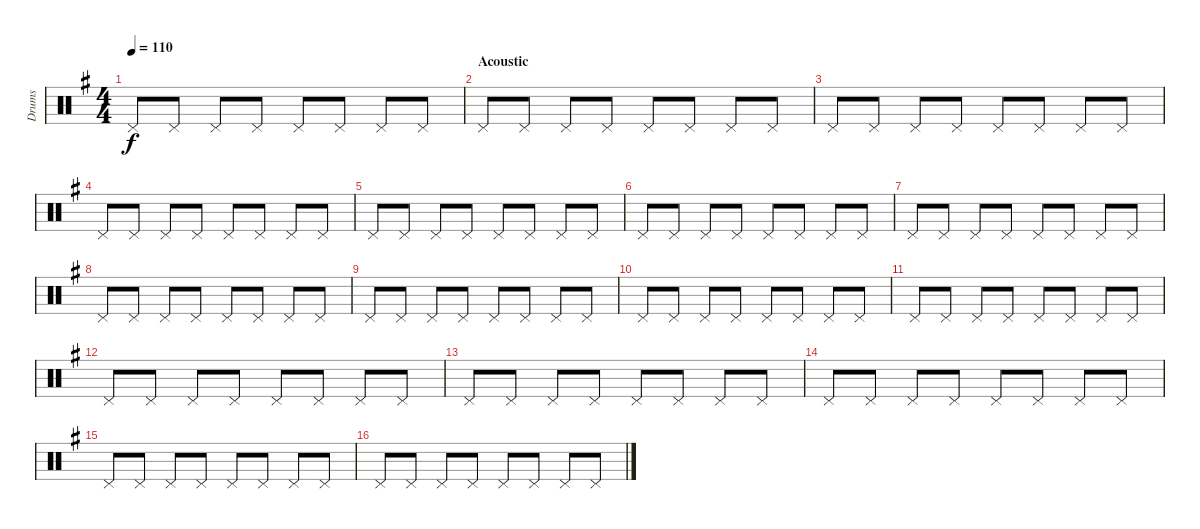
\track ("Drums" "Drums") {instrument percussion}
\staff {score}
\articulation defaults
\ts (4 4)
\tempo 110
\clef neutral
\ks g "Pedal Hi-Hat (hit)".8{dy f} "Pedal Hi-Hat (hit)".8 "Pedal Hi-Hat (hit)".8 "Pedal Hi-Hat (hit)".8 "Pedal Hi-Hat (hit)".8 "Pedal Hi-Hat (hit)".8 "Pedal Hi-Hat (hit)".8 "Pedal Hi-Hat (hit)".8
|
\section ("" "Acoustic")
"Pedal Hi-Hat (hit)".8 "Pedal Hi-Hat (hit)".8 "Pedal Hi-Hat (hit)".8 "Pedal Hi-Hat (hit)".8 "Pedal Hi-Hat (hit)".8 "Pedal Hi-Hat (hit)".8 "Pedal Hi-Hat (hit)".8 "Pedal Hi-Hat (hit)".8 |
"Pedal Hi-Hat (hit)".8 "Pedal Hi-Hat (hit)".8 "Pedal Hi-Hat (hit)".8 "Pedal Hi-Hat (hit)".8 "Pedal Hi-Hat (hit)".8 "Pedal Hi-Hat (hit)".8 "Pedal Hi-Hat (hit)".8 "Pedal Hi-Hat (hit)".8 |
"Pedal Hi-Hat (hit)".8 "Pedal Hi-Hat (hit)".8 "Pedal Hi-Hat (hit)".8 "Pedal Hi-Hat (hit)".8 "Pedal Hi-Hat (hit)".8 "Pedal Hi-Hat (hit)".8 "Pedal Hi-Hat (hit)".8 "Pedal Hi-Hat (hit)".8 |
"Pedal Hi-Hat (hit)".8 "Pedal Hi-Hat (hit)".8 "Pedal Hi-Hat (hit)".8 "Pedal Hi-Hat (hit)".8 "Pedal Hi-Hat (hit)".8 "Pedal Hi-Hat (hit)".8 "Pedal Hi-Hat (hit)".8 "Pedal Hi-Hat (hit)".8 |
"Pedal Hi-Hat (hit)".8 "Pedal Hi-Hat (hit)".8 "Pedal Hi-Hat (hit)".8 "Pedal Hi-Hat (hit)".8 "Pedal Hi-Hat (hit)".8 "Pedal Hi-Hat (hit)".8 "Pedal Hi-Hat (hit)".8 "Pedal Hi-Hat (hit)".8 |
"Pedal Hi-Hat (hit)".8 "Pedal Hi-Hat (hit)".8 "Pedal Hi-Hat (hit)".8 "Pedal Hi-Hat (hit)".8 "Pedal Hi-Hat (hit)".8 "Pedal Hi-Hat (hit)".8 "Pedal Hi-Hat (hit)".8 "Pedal Hi-Hat (hit)".8 |
"Pedal Hi-Hat (hit)".8 "Pedal Hi-Hat (hit)".8 "Pedal Hi-Hat (hit)".8 "Pedal Hi-Hat (hit)".8 "Pedal Hi-Hat (hit)".8 "Pedal Hi-Hat (hit)".8 "Pedal Hi-Hat (hit)".8 "Pedal Hi-Hat (hit)".8 |
"Pedal Hi-Hat (hit)".8 "Pedal Hi-Hat (hit)".8 "Pedal Hi-Hat (hit)".8 "Pedal Hi-Hat (hit)".8 "Pedal Hi-Hat (hit)".8 "Pedal Hi-Hat (hit)".8 "Pedal Hi-Hat (hit)".8 "Pedal Hi-Hat (hit)".8 |
"Pedal Hi-Hat (hit)".8 "Pedal Hi-Hat (hit)".8 "Pedal Hi-Hat (hit)".8 "Pedal Hi-Hat (hit)".8 "Pedal Hi-Hat (hit)".8 "Pedal Hi-Hat (hit)".8 "Pedal Hi-Hat (hit)".8 "Pedal Hi-Hat (hit)".8 |
"Pedal Hi-Hat (hit)".8 "Pedal Hi-Hat (hit)".8 "Pedal Hi-Hat (hit)".8 "Pedal Hi-Hat (hit)".8 "Pedal Hi-Hat (hit)".8 "Pedal Hi-Hat (hit)".8 "Pedal Hi-Hat (hit)".8 "Pedal Hi-Hat (hit)".8 |
"Pedal Hi-Hat (hit)".8 "Pedal Hi-Hat (hit)".8 "Pedal Hi-Hat (hit)".8 "Pedal Hi-Hat (hit)".8 "Pedal Hi-Hat (hit)".8 "Pedal Hi-Hat (hit)".8 "Pedal Hi-Hat (hit)".8 "Pedal Hi-Hat (hit)".8 |
"Pedal Hi-Hat (hit)".8 "Pedal Hi-Hat (hit)".8 "Pedal Hi-Hat (hit)".8 "Pedal Hi-Hat (hit)".8 "Pedal Hi-Hat (hit)".8 "Pedal Hi-Hat (hit)".8 "Pedal Hi-Hat (hit)".8 "Pedal Hi-Hat (hit)".8 |
"Pedal Hi-Hat (hit)".8 "Pedal Hi-Hat (hit)".8 "Pedal Hi-Hat (hit)".8 "Pedal Hi-Hat (hit)".8 "Pedal Hi-Hat (hit)".8 "Pedal Hi-Hat (hit)".8 "Pedal Hi-Hat (hit)".8 "Pedal Hi-Hat (hit)".8 |
"Pedal Hi-Hat (hit)".8 "Pedal Hi-Hat (hit)".8 "Pedal Hi-Hat (hit)".8 "Pedal Hi-Hat (hit)".8 "Pedal Hi-Hat (hit)".8 "Pedal Hi-Hat (hit)".8 "Pedal Hi-Hat (hit)".8 "Pedal Hi-Hat (hit)".8 |
"Pedal Hi-Hat (hit)".8 "Pedal Hi-Hat (hit)".8 "Pedal Hi-Hat (hit)".8 "Pedal Hi-Hat (hit)".8 "Pedal Hi-Hat (hit)".8 "Pedal Hi-Hat (hit)".8 "Pedal Hi-Hat (hit)".8 "Pedal Hi-Hat (hit)".8
